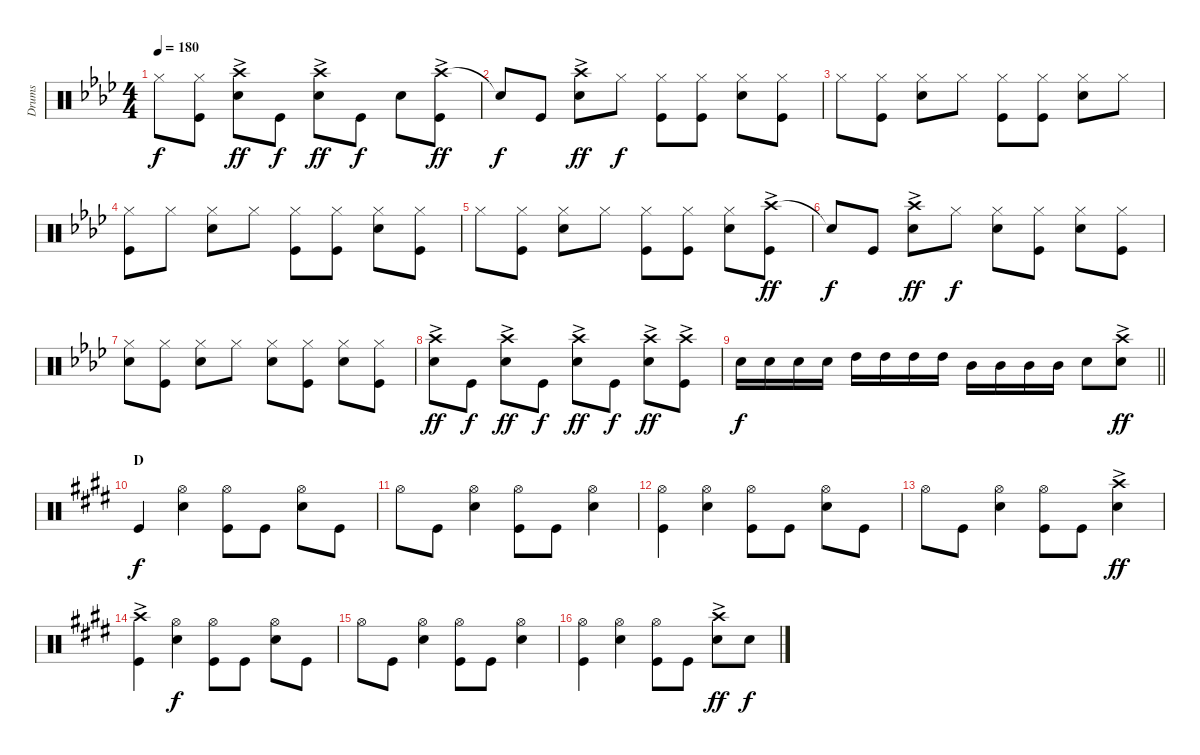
\track ("Drums" "Drums") {instrument percussion}
\staff {score}
\articulation defaults
\ts (4 4)
\tempo 180
\clef neutral
\ks ab "Hi-Hat (closed)".8{dy f}
("Hi-Hat (closed)" "Kick (hit)").8 ("Crash high (hit)"{ac} "Snare (hit) 2").8{dy ff} "Kick (hit)".8{dy f} ("Crash high (hit)"{ac} "Snare (hit) 2").8{dy ff} "Kick (hit)".8{dy f} "Snare (hit) 2".8 ("Crash high (hit)"{ac} "Kick (hit)").8{dy ff} |
"Snare (hit)"{t}.8{dy f} "Kick (hit)".8 ("Crash high (hit)"{ac} "Snare (hit) 2").8{dy ff} "Hi-Hat (closed)".8{dy f} ("Hi-Hat (closed)" "Kick (hit)").8 ("Hi-Hat (closed)" "Kick (hit)").8 ("Hi-Hat (closed)" "Snare (hit) 2").8 ("Hi-Hat (closed)" "Kick (hit)").8 |
"Hi-Hat (closed)".8 ("Hi-Hat (closed)" "Kick (hit)").8 ("Hi-Hat (closed)" "Snare (hit) 2").8 "Hi-Hat (closed)".8 ("Hi-Hat (closed)" "Kick (hit)").8 ("Hi-Hat (closed)" "Kick (hit)").8 ("Hi-Hat (closed)" "Snare (hit) 2").8 "Hi-Hat (closed)".8 |
("Hi-Hat (closed)" "Kick (hit)").8 "Hi-Hat (closed)".8 ("Hi-Hat (closed)" "Snare (hit) 2").8 "Hi-Hat (closed)".8 ("Hi-Hat (closed)" "Kick (hit)").8 ("Hi-Hat (closed)" "Kick (hit)").8 ("Hi-Hat (closed)" "Snare (hit) 2").8 ("Hi-Hat (closed)" "Kick (hit)").8 |
"Hi-Hat (closed)".8 ("Hi-Hat (closed)" "Kick (hit)").8 ("Hi-Hat (closed)" "Snare (hit) 2").8 "Hi-Hat (closed)".8 ("Hi-Hat (closed)" "Kick (hit)").8 ("Hi-Hat (closed)" "Kick (hit)").8 ("Hi-Hat (closed)" "Snare (hit) 2").8 ("Crash high (hit)"{ac} "Kick (hit)").8{dy ff} |
"Snare (hit)"{t}.8{dy f} "Kick (hit)".8 ("Crash high (hit)"{ac} "Snare (hit) 2").8{dy ff} "Hi-Hat (closed)".8{dy f} ("Hi-Hat (closed)" "Snare (hit) 2").8 ("Hi-Hat (closed)" "Kick (hit)").8 ("Hi-Hat (closed)" "Snare (hit) 2").8 ("Hi-Hat (closed)" "Kick (hit)").8 |
("Hi-Hat (closed)" "Snare (hit) 2").8 ("Hi-Hat (closed)" "Kick (hit)").8 ("Hi-Hat (closed)" "Snare (hit) 2").8 "Hi-Hat (closed)".8 ("Hi-Hat (closed)" "Snare (hit) 2").8 ("Hi-Hat (closed)" "Kick (hit)").8 ("Hi-Hat (closed)" "Snare (hit) 2").8 ("Hi-Hat (closed)" "Kick (hit)").8 |
("Crash high (hit)"{ac} "Snare (hit) 2").8{dy ff} "Kick (hit)".8{dy f} ("Crash high (hit)"{ac} "Snare (hit) 2").8{dy ff} "Kick (hit)".8{dy f} ("Crash high (hit)"{ac} "Snare (hit) 2").8{dy ff} "Kick (hit)".8{dy f} ("Crash high (hit)"{ac} "Snare (hit) 2").8{dy ff} ("Crash high (hit)"{ac} "Kick (hit)").8 |
\barLineRight lightlight "Snare (hit) 2".16{dy f} "Snare (hit) 2".16 "Snare (hit) 2".16 "Snare (hit) 2".16 "High Tom (hit)".16 "High Tom (hit)".16 "High Tom (hit)".16 "High Tom (hit)".16 "Mid Tom (hit)".16 "Mid Tom (hit)".16 "Mid Tom (hit)".16 "Mid Tom (hit)".16 "Snare (hit) 2".8
("Crash high (hit)"{ac} "Snare (hit) 2").8{dy ff} |
\section ("" "D")
\ks e "Kick (hit)".4{dy f}
("Hi-Hat (open)" "Snare (hit) 2").4 ("Hi-Hat (open)" "Kick (hit)").8 "Kick (hit)".8 ("Hi-Hat (open)" "Snare (hit) 2").8 "Kick (hit)".8 |
"Hi-Hat (open)".8 "Kick (hit)".8 ("Hi-Hat (open)" "Snare (hit) 2").4 ("Hi-Hat (open)" "Kick (hit)").8 "Kick (hit)".8 ("Hi-Hat (open)" "Snare (hit) 2").4 |
("Hi-Hat (open)" "Kick (hit)").4 ("Hi-Hat (open)" "Snare (hit) 2").4 ("Hi-Hat (open)" "Kick (hit)").8 "Kick (hit)".8 ("Hi-Hat (open)" "Snare (hit) 2").8 "Kick (hit)".8 |
"Hi-Hat (open)".8 "Kick (hit)".8 ("Hi-Hat (open)" "Snare (hit) 2").4 ("Hi-Hat (open)" "Kick (hit)").8 "Kick (hit)".8 ("Crash high (hit)"{ac} "Snare (hit) 2").4{dy ff} |
("Crash high (hit)"{ac} "Kick (hit)").4 ("Hi-Hat (open)" "Snare (hit) 2").4{dy f} ("Hi-Hat (open)" "Kick (hit)").8 "Kick (hit)".8 ("Hi-Hat (open)" "Snare (hit) 2").8 "Kick (hit)".8 |
"Hi-Hat (open)".8 "Kick (hit)".8 ("Hi-Hat (open)" "Snare (hit) 2").4 ("Hi-Hat (open)" "Kick (hit)").8 "Kick (hit)".8 ("Hi-Hat (open)" "Snare (hit) 2").4 |
("Hi-Hat (open)" "Kick (hit)").4 ("Hi-Hat (open)" "Snare (hit) 2").4 ("Hi-Hat (open)" "Kick (hit)").8 "Kick (hit)".8 ("Crash high (hit)"{ac} "Snare (hit) 2").8{dy ff} "Snare (hit) 2".8{dy f}
